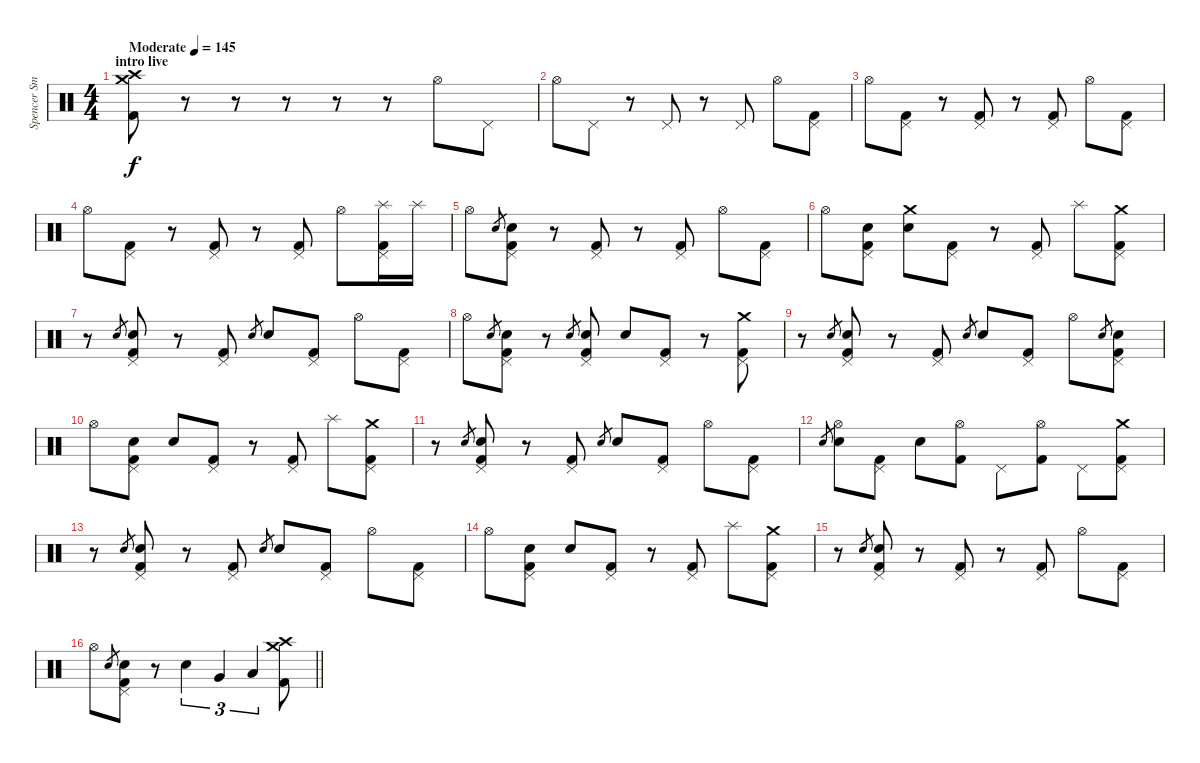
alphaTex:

\track ("Spencer Smith" "Spencer Sm") {instrument percussion}
\staff {score}
\articulation defaults
\ts (4 4)
\section ("" "intro live")
\tempo (145 "Moderate")
\clef neutral
\ks c
("Crash medium (hit)" "Crash high (hit)" "Kick (hit) 2").8{dy f} r.8 r.8 r.8 r.8 r.8 "Hi-Hat (open)".8 "Pedal Hi-Hat (hit)".8 |
"Hi-Hat (open)".8 "Pedal Hi-Hat (hit)".8 r.8 "Pedal Hi-Hat (hit)".8 r.8 "Pedal Hi-Hat (hit)".8 "Hi-Hat (open)".8 ("Pedal Hi-Hat (hit)" "Kick (hit) 2").8 |
"Hi-Hat (open)".8 ("Pedal Hi-Hat (hit)" "Kick (hit) 2").8 r.8 ("Pedal Hi-Hat (hit)" "Kick (hit) 2").8 r.8 ("Pedal Hi-Hat (hit)" "Kick (hit) 2").8 "Hi-Hat (open)".8 ("Pedal Hi-Hat (hit)" "Kick (hit) 2").8 |
"Hi-Hat (open)".8 ("Pedal Hi-Hat (hit)" "Kick (hit) 2").8 r.8 ("Pedal Hi-Hat (hit)" "Kick (hit) 2").8 r.8 ("Pedal Hi-Hat (hit)" "Kick (hit) 2").8 "Hi-Hat (open)".8 ("Pedal Hi-Hat (hit)" "Splash (hit)" "Kick (hit) 2").16 "Splash (hit)".16 |
"Hi-Hat (open)".8 "Electric Snare (hit)".8{gr} ("Pedal Hi-Hat (hit)" "Electric Snare (hit)" "Kick (hit) 2").8 r.8 ("Pedal Hi-Hat (hit)" "Kick (hit) 2").8 r.8 ("Pedal Hi-Hat (hit)" "Kick (hit) 2").8 "Hi-Hat (open)".8 ("Pedal Hi-Hat (hit)" "Kick (hit) 2").8 |
"Hi-Hat (open)".8 ("Pedal Hi-Hat (hit)" "Electric Snare (hit)" "Kick (hit) 2").8 ("Crash medium (hit)" "Electric Snare (hit)").8 ("Pedal Hi-Hat (hit)" "Kick (hit) 2").8 r.8 ("Pedal Hi-Hat (hit)" "Kick (hit) 2").8 "Splash (hit)".8 ("Pedal Hi-Hat (hit)" "Crash medium (hit)" "Kick (hit) 2").8 |
r.8 "Electric Snare (hit)".8{gr} ("Pedal Hi-Hat (hit)" "Electric Snare (hit)" "Kick (hit) 2").8 r.8 ("Pedal Hi-Hat (hit)" "Kick (hit) 2").8 "Electric Snare (hit)".8{gr} "Electric Snare (hit)".8 ("Pedal Hi-Hat (hit)" "Kick (hit) 2").8 "Hi-Hat (open)".8 ("Pedal Hi-Hat (hit)" "Kick (hit) 2").8 |
"Hi-Hat (open)".8 "Electric Snare (hit)".8{gr} ("Pedal Hi-Hat (hit)" "Electric Snare (hit)" "Kick (hit) 2").8 r.8 "Electric Snare (hit)".8{gr} ("Pedal Hi-Hat (hit)" "Electric Snare (hit)" "Kick (hit) 2").8 "Electric Snare (hit)".8 ("Pedal Hi-Hat (hit)" "Kick (hit) 2").8 r.8 ("Pedal Hi-Hat (hit)" "Crash medium (hit)" "Kick (hit) 2").8 |
r.8 "Electric Snare (hit)".8{gr} ("Pedal Hi-Hat (hit)" "Electric Snare (hit)" "Kick (hit) 2").8 r.8 ("Pedal Hi-Hat (hit)" "Kick (hit) 2").8 "Electric Snare (hit)".8{gr} "Electric Snare (hit)".8 ("Pedal Hi-Hat (hit)" "Kick (hit) 2").8 "Hi-Hat (open)".8 "Electric Snare (hit)".8{gr} ("Pedal Hi-Hat (hit)" "Electric Snare (hit)" "Kick (hit) 2").8 |
"Hi-Hat (open)".8 ("Pedal Hi-Hat (hit)" "Electric Snare (hit)" "Kick (hit) 2").8 "Electric Snare (hit)".8 ("Pedal Hi-Hat (hit)" "Kick (hit) 2").8 r.8 ("Pedal Hi-Hat (hit)" "Kick (hit) 2").8 "Splash (hit)".8 ("Pedal Hi-Hat (hit)" "Crash medium (hit)" "Kick (hit) 2").8 |
r.8 "Electric Snare (hit)".8{gr} ("Pedal Hi-Hat (hit)" "Electric Snare (hit)" "Kick (hit) 2").8 r.8 ("Pedal Hi-Hat (hit)" "Kick (hit) 2").8 "Electric Snare (hit)".8{gr} "Electric Snare (hit)".8 ("Pedal Hi-Hat (hit)" "Kick (hit) 2").8 "Hi-Hat (open)".8 ("Pedal Hi-Hat (hit)" "Kick (hit) 2").8 |
"Electric Snare (hit)".8{gr} ("Hi-Hat (open)" "Electric Snare (hit)").8 ("Pedal Hi-Hat (hit)" "Kick (hit) 2").8 "Electric Snare (hit)".8 ("Hi-Hat (open)" "Kick (hit) 2").8 "Pedal Hi-Hat (hit)".8 ("Hi-Hat (open)" "Kick (hit) 2").8 "Pedal Hi-Hat (hit)".8 ("Pedal Hi-Hat (hit)" "Crash medium (hit)" "Kick (hit) 2").8 |
r.8 "Electric Snare (hit)".8{gr} ("Pedal Hi-Hat (hit)" "Electric Snare (hit)" "Kick (hit) 2").8 r.8 ("Pedal Hi-Hat (hit)" "Kick (hit) 2").8 "Electric Snare (hit)".8{gr} "Electric Snare (hit)".8 ("Pedal Hi-Hat (hit)" "Kick (hit) 2").8 "Hi-Hat (open)".8 ("Pedal Hi-Hat (hit)" "Kick (hit) 2").8 |
"Hi-Hat (open)".8 ("Pedal Hi-Hat (hit)" "Electric Snare (hit)" "Kick (hit) 2").8 "Electric Snare (hit)".8 ("Pedal Hi-Hat (hit)" "Kick (hit) 2").8 r.8 ("Pedal Hi-Hat (hit)" "Kick (hit) 2").8 "Splash (hit)".8 ("Pedal Hi-Hat (hit)" "Crash medium (hit)" "Kick (hit) 2").8 |
r.8 "Electric Snare (hit)".8{gr} ("Pedal Hi-Hat (hit)" "Electric Snare (hit)" "Kick (hit) 2").8 r.8 ("Pedal Hi-Hat (hit)" "Kick (hit) 2").8 r.8 ("Pedal Hi-Hat (hit)" "Kick (hit) 2").8 "Hi-Hat (open)".8 ("Pedal Hi-Hat (hit)" "Kick (hit) 2").8 |
\barLineRight lightlight "Hi-Hat (open)".8 "Electric Snare (hit)".8{gr}
("Pedal Hi-Hat (hit)" "Electric Snare (hit)" "Kick (hit) 2").8 r.8 "Electric Snare (hit)".4{tu (3 2)} "Very Low Tom (hit)".4{tu (3 2)} "Low Floor Tom (hit)".4{tu (3 2)} ("Crash high (hit)" "Crash medium (hit)" "Kick (hit) 2").8
